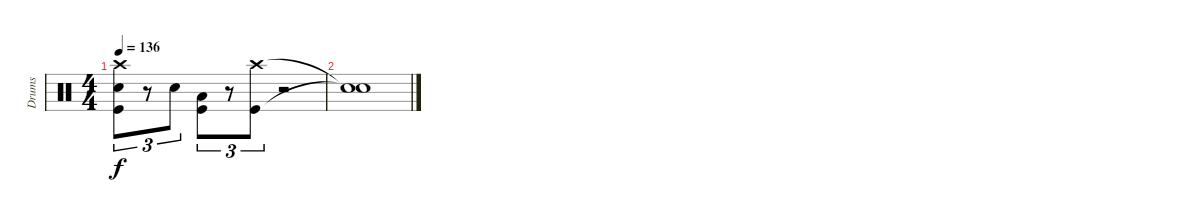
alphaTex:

\track ("Drums" "Drums") {instrument percussion}
\staff {score}
\articulation defaults
\ts (4 4)
\tempo 136
\clef neutral
\ks c
("Crash high (hit)" "Electric Snare (hit)" "Kick (hit)").8{tu (3 2) dy f} r.8{tu (3 2)} "Electric Snare (hit)".8{tu (3 2)} ("Low Tom (hit)" "Kick (hit)").8{tu (3 2)} r.8{tu (3 2)} ("Crash high (hit)" "Kick (hit)").8{tu (3 2)} r.2 |
("Snare (hit)"{t} "Snare (hit)"{t}).1
